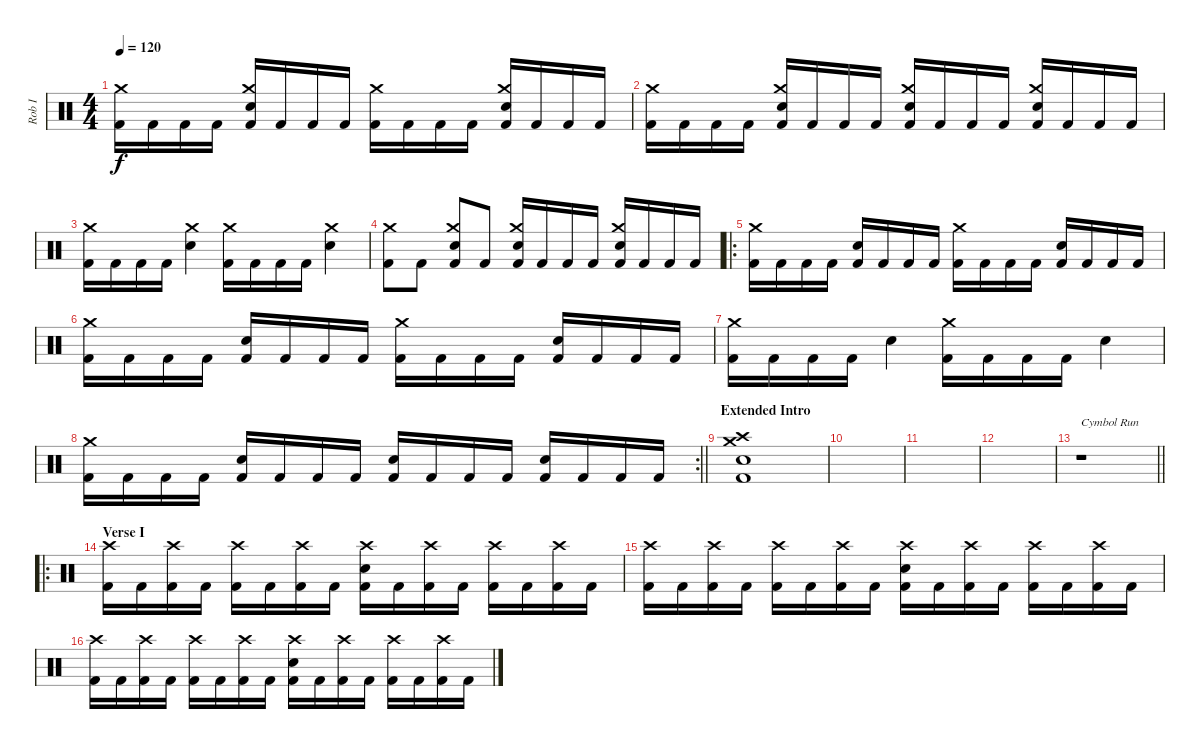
\track ("Rob I" "Rob I") {instrument percussion}
\staff {score}
\articulation defaults
\ts (4 4)
\tempo 120
\clef neutral
\ks c
("Kick (hit) 2" "Crash medium (hit)").16{dy f} "Kick (hit) 2".16 "Kick (hit) 2".16 "Kick (hit) 2".16 ("Electric Snare (hit)" "Crash medium (hit)" "Kick (hit) 2").16 "Kick (hit) 2".16 "Kick (hit) 2".16 "Kick (hit) 2".16 ("Kick (hit) 2" "Crash medium (hit)").16 "Kick (hit) 2".16 "Kick (hit) 2".16 "Kick (hit) 2".16 ("Electric Snare (hit)" "Crash medium (hit)" "Kick (hit) 2").16 "Kick (hit) 2".16 "Kick (hit) 2".16 "Kick (hit) 2".16 |
("Kick (hit) 2" "Crash medium (hit)").16 "Kick (hit) 2".16 "Kick (hit) 2".16 "Kick (hit) 2".16 ("Electric Snare (hit)" "Crash medium (hit)" "Kick (hit) 2").16 "Kick (hit) 2".16 "Kick (hit) 2".16 "Kick (hit) 2".16 ("Kick (hit) 2" "Electric Snare (hit)" "Crash medium (hit)").16 "Kick (hit) 2".16 "Kick (hit) 2".16 "Kick (hit) 2".16 ("Electric Snare (hit)" "Crash medium (hit)" "Kick (hit) 2").16 "Kick (hit) 2".16 "Kick (hit) 2".16 "Kick (hit) 2".16 |
("Crash medium (hit)" "Kick (hit) 2").16 "Kick (hit) 2".16 "Kick (hit) 2".16 "Kick (hit) 2".16 ("Electric Snare (hit)" "Crash medium (hit)").4 ("Kick (hit) 2" "Crash medium (hit)").16 "Kick (hit) 2".16 "Kick (hit) 2".16 "Kick (hit) 2".16 ("Crash medium (hit)" "Electric Snare (hit)").4 |
("Kick (hit) 2" "Crash medium (hit)").8 "Kick (hit) 2".8 ("Kick (hit) 2" "Electric Snare (hit)" "Crash medium (hit)").8 "Kick (hit) 2".8 ("Kick (hit) 2" "Electric Snare (hit)" "Crash medium (hit)").16 "Kick (hit) 2".16 "Kick (hit) 2".16 "Kick (hit) 2".16 ("Kick (hit) 2" "Electric Snare (hit)" "Crash medium (hit)").16 "Kick (hit) 2".16 "Kick (hit) 2".16 "Kick (hit) 2".16 |
\ro
("Kick (hit) 2" "Crash medium (hit)").16 "Kick (hit) 2".16 "Kick (hit) 2".16 "Kick (hit) 2".16 ("Electric Snare (hit)" "Kick (hit) 2").16 "Kick (hit) 2".16 "Kick (hit) 2".16 "Kick (hit) 2".16 ("Kick (hit) 2" "Crash medium (hit)").16 "Kick (hit) 2".16 "Kick (hit) 2".16 "Kick (hit) 2".16 ("Electric Snare (hit)" "Kick (hit) 2").16 "Kick (hit) 2".16 "Kick (hit) 2".16 "Kick (hit) 2".16 |
("Kick (hit) 2" "Crash medium (hit)").16 "Kick (hit) 2".16 "Kick (hit) 2".16 "Kick (hit) 2".16 ("Electric Snare (hit)" "Kick (hit) 2").16 "Kick (hit) 2".16 "Kick (hit) 2".16 "Kick (hit) 2".16 ("Kick (hit) 2" "Crash medium (hit)").16 "Kick (hit) 2".16 "Kick (hit) 2".16 "Kick (hit) 2".16 ("Electric Snare (hit)" "Kick (hit) 2").16 "Kick (hit) 2".16 "Kick (hit) 2".16 "Kick (hit) 2".16 |
("Crash medium (hit)" "Kick (hit) 2").16 "Kick (hit) 2".16 "Kick (hit) 2".16 "Kick (hit) 2".16 "Electric Snare (hit)".4 ("Kick (hit) 2" "Crash medium (hit)").16 "Kick (hit) 2".16 "Kick (hit) 2".16 "Kick (hit) 2".16 "Electric Snare (hit)".4 |
\rc 2
\barLineRight lightlight
("Kick (hit) 2" "Crash medium (hit)").16 "Kick (hit) 2".16 "Kick (hit) 2".16 "Kick (hit) 2".16 ("Kick (hit) 2" "Electric Snare (hit)").16 "Kick (hit) 2".16 "Kick (hit) 2".16 "Kick (hit) 2".16 ("Kick (hit) 2" "Electric Snare (hit)").16 "Kick (hit) 2".16 "Kick (hit) 2".16 "Kick (hit) 2".16 ("Kick (hit) 2" "Electric Snare (hit)").16 "Kick (hit) 2".16 "Kick (hit) 2".16 "Kick (hit) 2".16 |
\section ("" "Extended Intro")
("Kick (hit) 2" "Crash high (hit)" "Crash medium (hit)" "Electric Snare (hit)").1 |
|
|
|
\barLineRight lightlight
r.1{txt "Cymbol Run"} |
\ro
\section ("" "Verse I")
("Kick (hit) 2" "Crash high (hit)").16 "Kick (hit) 2".16 ("Kick (hit) 2" "Crash high (hit)").16 "Kick (hit) 2".16 ("Kick (hit) 2" "Crash high (hit)").16 "Kick (hit) 2".16 ("Kick (hit) 2" "Crash high (hit)").16 "Kick (hit) 2".16 ("Kick (hit) 2" "Crash high (hit)" "Electric Snare (hit)").16 "Kick (hit) 2".16 ("Kick (hit) 2" "Crash high (hit)").16 "Kick (hit) 2".16 ("Kick (hit) 2" "Crash high (hit)").16 "Kick (hit) 2".16 ("Kick (hit) 2" "Crash high (hit)").16 "Kick (hit) 2".16 |
("Kick (hit) 2" "Crash high (hit)").16 "Kick (hit) 2".16 ("Kick (hit) 2" "Crash high (hit)").16 "Kick (hit) 2".16 ("Kick (hit) 2" "Crash high (hit)").16 "Kick (hit) 2".16 ("Kick (hit) 2" "Crash high (hit)").16 "Kick (hit) 2".16 ("Kick (hit) 2" "Crash high (hit)" "Electric Snare (hit)").16 "Kick (hit) 2".16 ("Kick (hit) 2" "Crash high (hit)").16 "Kick (hit) 2".16 ("Kick (hit) 2" "Crash high (hit)").16 "Kick (hit) 2".16 ("Kick (hit) 2" "Crash high (hit)").16 "Kick (hit) 2".16 |
("Kick (hit) 2" "Crash high (hit)").16 "Kick (hit) 2".16 ("Kick (hit) 2" "Crash high (hit)").16 "Kick (hit) 2".16 ("Kick (hit) 2" "Crash high (hit)").16 "Kick (hit) 2".16 ("Kick (hit) 2" "Crash high (hit)").16 "Kick (hit) 2".16 ("Kick (hit) 2" "Crash high (hit)" "Electric Snare (hit)").16 "Kick (hit) 2".16 ("Kick (hit) 2" "Crash high (hit)").16 "Kick (hit) 2".16 ("Kick (hit) 2" "Crash high (hit)").16 "Kick (hit) 2".16 ("Kick (hit) 2" "Crash high (hit)").16 "Kick (hit) 2".16
